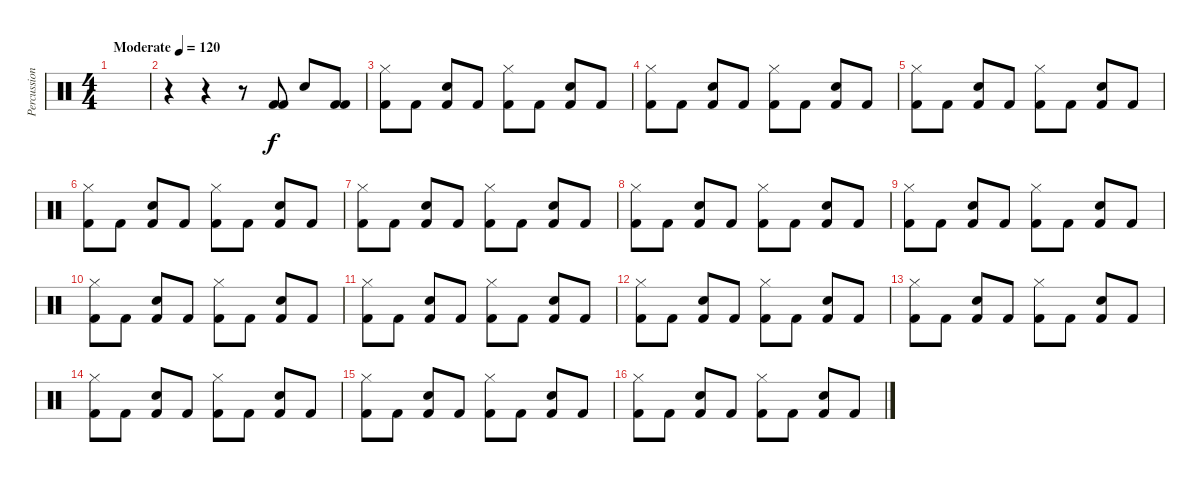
\track ("Percussions" "Percussion") {instrument percussion}
\staff {score}
\articulation defaults
\ts (4 4)
\tempo (120 "Moderate")
\clef neutral
\ks c
|
r.4 r.4 r.8 ("Kick (hit) 2" "Kick (hit) 2").8 "Electric Snare (hit)".8 ("Kick (hit) 2" "Kick (hit) 2").8 |
("Kick (hit) 2" "Hi-Hat (closed)").8 "Kick (hit) 2".8 ("Kick (hit) 2" "Electric Snare (hit)").8 "Kick (hit) 2".8 ("Kick (hit) 2" "Hi-Hat (closed)").8 "Kick (hit) 2".8 ("Kick (hit) 2" "Electric Snare (hit)").8 "Kick (hit) 2".8 |
("Kick (hit) 2" "Hi-Hat (closed)").8 "Kick (hit) 2".8 ("Kick (hit) 2" "Electric Snare (hit)").8 "Kick (hit) 2".8 ("Kick (hit) 2" "Hi-Hat (closed)").8 "Kick (hit) 2".8 ("Kick (hit) 2" "Electric Snare (hit)").8 "Kick (hit) 2".8 |
("Kick (hit) 2" "Hi-Hat (closed)").8 "Kick (hit) 2".8 ("Kick (hit) 2" "Electric Snare (hit)").8 "Kick (hit) 2".8 ("Kick (hit) 2" "Hi-Hat (closed)").8 "Kick (hit) 2".8 ("Kick (hit) 2" "Electric Snare (hit)").8 "Kick (hit) 2".8 |
("Kick (hit) 2" "Hi-Hat (closed)").8 "Kick (hit) 2".8 ("Kick (hit) 2" "Electric Snare (hit)").8 "Kick (hit) 2".8 ("Kick (hit) 2" "Hi-Hat (closed)").8 "Kick (hit) 2".8 ("Kick (hit) 2" "Electric Snare (hit)").8 "Kick (hit) 2".8 |
("Kick (hit) 2" "Hi-Hat (closed)").8 "Kick (hit) 2".8 ("Kick (hit) 2" "Electric Snare (hit)").8 "Kick (hit) 2".8 ("Kick (hit) 2" "Hi-Hat (closed)").8 "Kick (hit) 2".8 ("Kick (hit) 2" "Electric Snare (hit)").8 "Kick (hit) 2".8 |
("Kick (hit) 2" "Hi-Hat (closed)").8 "Kick (hit) 2".8 ("Kick (hit) 2" "Electric Snare (hit)").8 "Kick (hit) 2".8 ("Kick (hit) 2" "Hi-Hat (closed)").8 "Kick (hit) 2".8 ("Kick (hit) 2" "Electric Snare (hit)").8 "Kick (hit) 2".8 |
("Kick (hit) 2" "Hi-Hat (closed)").8 "Kick (hit) 2".8 ("Kick (hit) 2" "Electric Snare (hit)").8 "Kick (hit) 2".8 ("Kick (hit) 2" "Hi-Hat (closed)").8 "Kick (hit) 2".8 ("Kick (hit) 2" "Electric Snare (hit)").8 "Kick (hit) 2".8 |
("Kick (hit) 2" "Hi-Hat (closed)").8 "Kick (hit) 2".8 ("Kick (hit) 2" "Electric Snare (hit)").8 "Kick (hit) 2".8 ("Kick (hit) 2" "Hi-Hat (closed)").8 "Kick (hit) 2".8 ("Kick (hit) 2" "Electric Snare (hit)").8 "Kick (hit) 2".8 |
("Kick (hit) 2" "Hi-Hat (closed)").8 "Kick (hit) 2".8 ("Kick (hit) 2" "Electric Snare (hit)").8 "Kick (hit) 2".8 ("Kick (hit) 2" "Hi-Hat (closed)").8 "Kick (hit) 2".8 ("Kick (hit) 2" "Electric Snare (hit)").8 "Kick (hit) 2".8 |
("Kick (hit) 2" "Hi-Hat (closed)").8 "Kick (hit) 2".8 ("Kick (hit) 2" "Electric Snare (hit)").8 "Kick (hit) 2".8 ("Kick (hit) 2" "Hi-Hat (closed)").8 "Kick (hit) 2".8 ("Kick (hit) 2" "Electric Snare (hit)").8 "Kick (hit) 2".8 |
("Kick (hit) 2" "Hi-Hat (closed)").8 "Kick (hit) 2".8 ("Kick (hit) 2" "Electric Snare (hit)").8 "Kick (hit) 2".8 ("Kick (hit) 2" "Hi-Hat (closed)").8 "Kick (hit) 2".8 ("Kick (hit) 2" "Electric Snare (hit)").8 "Kick (hit) 2".8 |
("Kick (hit) 2" "Hi-Hat (closed)").8 "Kick (hit) 2".8 ("Kick (hit) 2" "Electric Snare (hit)").8 "Kick (hit) 2".8 ("Kick (hit) 2" "Hi-Hat (closed)").8 "Kick (hit) 2".8 ("Kick (hit) 2" "Electric Snare (hit)").8 "Kick (hit) 2".8 |
("Kick (hit) 2" "Hi-Hat (closed)").8 "Kick (hit) 2".8 ("Kick (hit) 2" "Electric Snare (hit)").8 "Kick (hit) 2".8 ("Kick (hit) 2" "Hi-Hat (closed)").8 "Kick (hit) 2".8 ("Kick (hit) 2" "Electric Snare (hit)").8 "Kick (hit) 2".8 |
("Kick (hit) 2" "Hi-Hat (closed)").8 "Kick (hit) 2".8 ("Kick (hit) 2" "Electric Snare (hit)").8 "Kick (hit) 2".8 ("Kick (hit) 2" "Hi-Hat (closed)").8 "Kick (hit) 2".8 ("Kick (hit) 2" "Electric Snare (hit)").8 "Kick (hit) 2".8
